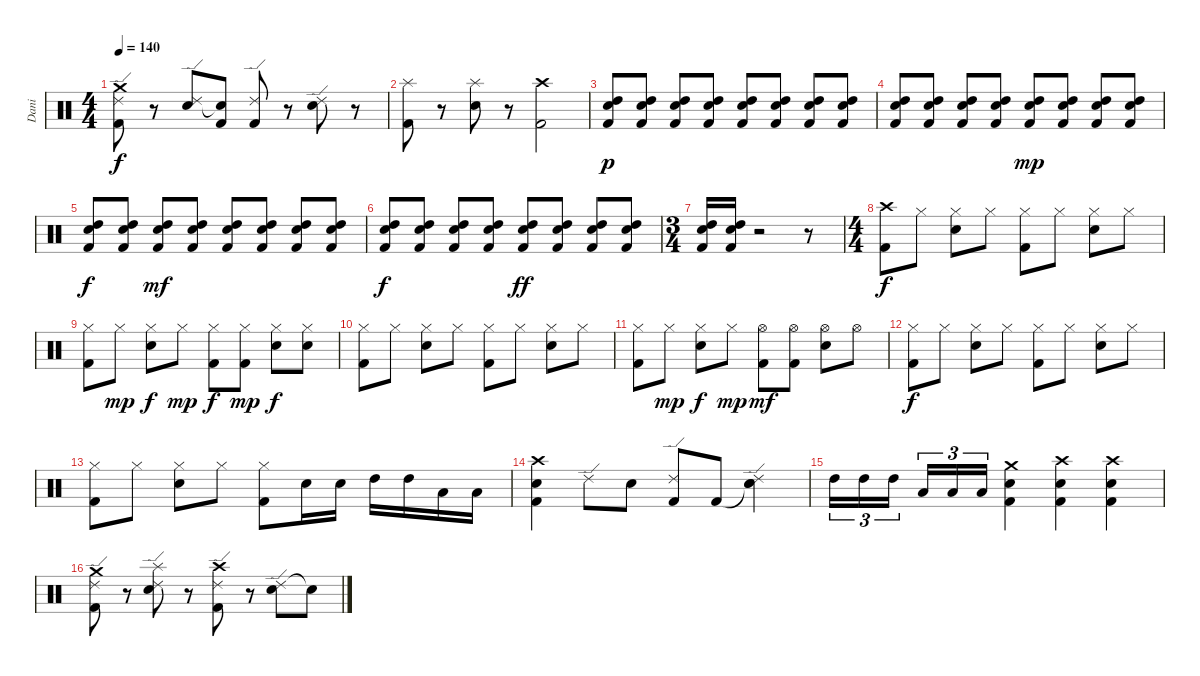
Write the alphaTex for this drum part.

\track ("Dani" "Dani") {instrument percussion}
\staff {score}
\articulation defaults
\ts (4 4)
\tempo 140
\clef neutral
\ks c
("Crash medium (hit)" "Ride (edge) 2" "Kick (hit) 2").8{dy f} r.8 ("Ride (edge) 2" "Snare (hit) 2").8 ("Snare (hit)"{t} "Kick (hit) 2").8 ("Ride (edge) 2" "Kick (hit) 2").8 r.8 ("Ride (edge) 2" "Snare (hit) 2").8 r.8 |
("Splash (hit)" "Kick (hit) 2").8 r.8 ("Splash (hit)" "Snare (hit) 2").8 r.8 ("Crash high (hit)" "Kick (hit) 2").2 |
("Snare (hit) 2" "High Tom (hit)" "Kick (hit) 2").8{dy p} ("Snare (hit) 2" "High Tom (hit)" "Kick (hit) 2").8 ("Snare (hit) 2" "High Tom (hit)" "Kick (hit) 2").8 ("Snare (hit) 2" "High Tom (hit)" "Kick (hit) 2").8 ("Snare (hit) 2" "High Tom (hit)" "Kick (hit) 2").8 ("Snare (hit) 2" "High Tom (hit)" "Kick (hit) 2").8 ("Snare (hit) 2" "High Tom (hit)" "Kick (hit) 2").8 ("Snare (hit) 2" "High Tom (hit)" "Kick (hit) 2").8 |
("Snare (hit) 2" "High Tom (hit)" "Kick (hit) 2").8 ("Snare (hit) 2" "High Tom (hit)" "Kick (hit) 2").8 ("Snare (hit) 2" "High Tom (hit)" "Kick (hit) 2").8 ("Snare (hit) 2" "High Tom (hit)" "Kick (hit) 2").8 ("Snare (hit) 2" "High Tom (hit)" "Kick (hit) 2").8{dy mp} ("Snare (hit) 2" "High Tom (hit)" "Kick (hit) 2").8 ("Snare (hit) 2" "High Tom (hit)" "Kick (hit) 2").8 ("Snare (hit) 2" "High Tom (hit)" "Kick (hit) 2").8 |
("Snare (hit) 2" "High Tom (hit)" "Kick (hit) 2").8{dy f} ("Snare (hit) 2" "High Tom (hit)" "Kick (hit) 2").8 ("Snare (hit) 2" "High Tom (hit)" "Kick (hit) 2").8{dy mf} ("Snare (hit) 2" "High Tom (hit)" "Kick (hit) 2").8 ("Snare (hit) 2" "High Tom (hit)" "Kick (hit) 2").8 ("Snare (hit) 2" "High Tom (hit)" "Kick (hit) 2").8 ("Snare (hit) 2" "High Tom (hit)" "Kick (hit) 2").8 ("Snare (hit) 2" "High Tom (hit)" "Kick (hit) 2").8 |
("Snare (hit) 2" "High Tom (hit)" "Kick (hit) 2").8{dy f} ("Snare (hit) 2" "High Tom (hit)" "Kick (hit) 2").8 ("Snare (hit) 2" "High Tom (hit)" "Kick (hit) 2").8 ("Snare (hit) 2" "High Tom (hit)" "Kick (hit) 2").8 ("Snare (hit) 2" "High Tom (hit)" "Kick (hit) 2").8{dy ff} ("Snare (hit) 2" "High Tom (hit)" "Kick (hit) 2").8 ("Snare (hit) 2" "High Tom (hit)" "Kick (hit) 2").8 ("Snare (hit) 2" "High Tom (hit)" "Kick (hit) 2").8 |
\ts (3 4)
("Snare (hit) 2" "High Tom (hit)" "Kick (hit) 2").16 ("Snare (hit) 2" "High Tom (hit)" "Kick (hit) 2").16 r.2 r.8 |
\ts (4 4)
("Crash high (hit)" "Kick (hit) 2").8{dy f} "Hi-Hat (closed)".8 ("Hi-Hat (closed)" "Snare (hit) 2").8 "Hi-Hat (closed)".8 ("Hi-Hat (closed)" "Kick (hit) 2").8 "Hi-Hat (closed)".8 ("Hi-Hat (closed)" "Snare (hit) 2").8 "Hi-Hat (closed)".8 |
("Hi-Hat (closed)" "Kick (hit) 2").8 "Hi-Hat (closed)".8{dy mp} ("Hi-Hat (closed)" "Snare (hit) 2").8{dy f} "Hi-Hat (closed)".8{dy mp} ("Hi-Hat (closed)" "Kick (hit) 2").8{dy f} ("Hi-Hat (closed)" "Kick (hit) 2").8{dy mp} ("Hi-Hat (closed)" "Snare (hit) 2").8{dy f} ("Hi-Hat (closed)" "Snare (hit) 2").8 |
("Hi-Hat (closed)" "Kick (hit) 2").8 "Hi-Hat (closed)".8 ("Hi-Hat (closed)" "Snare (hit) 2").8 "Hi-Hat (closed)".8 ("Hi-Hat (closed)" "Kick (hit) 2").8 "Hi-Hat (closed)".8 ("Hi-Hat (closed)" "Snare (hit) 2").8 "Hi-Hat (closed)".8 |
("Hi-Hat (closed)" "Kick (hit) 2").8 "Hi-Hat (closed)".8{dy mp} ("Hi-Hat (closed)" "Snare (hit) 2").8{dy f} "Hi-Hat (closed)".8{dy mp} ("Hi-Hat (open)" "Kick (hit) 2").8{dy mf} ("Hi-Hat (open)" "Kick (hit) 2").8 ("Hi-Hat (open)" "Snare (hit) 2").8 "Hi-Hat (open)".8 |
("Hi-Hat (closed)" "Kick (hit) 2").8{dy f} "Hi-Hat (closed)".8 ("Hi-Hat (closed)" "Snare (hit) 2").8 "Hi-Hat (closed)".8 ("Hi-Hat (closed)" "Kick (hit) 2").8 "Hi-Hat (closed)".8 ("Hi-Hat (closed)" "Snare (hit) 2").8 "Hi-Hat (closed)".8 |
("Hi-Hat (closed)" "Kick (hit) 2").8 "Hi-Hat (closed)".8 ("Hi-Hat (closed)" "Snare (hit) 2").8 "Hi-Hat (closed)".8 ("Hi-Hat (closed)" "Kick (hit) 2").8 "Snare (hit) 2".16 "Snare (hit) 2".16 "High Tom (hit)".16 "High Tom (hit)".16 "Low Tom (hit)".16 "Low Tom (hit)".16 |
("Crash high (hit)" "Snare (hit) 2" "Kick (hit) 2").4 "Ride (edge) 2".8 "Snare (hit) 2".8 ("Ride (edge) 2" "Kick (hit) 2").8 "Kick (hit) 2".8 ("Snare (hit)"{t} "Ride (edge) 2" "Snare (hit) 2").4 |
"High Tom (hit)".16{tu (3 2)} "High Tom (hit)".16{tu (3 2)} "High Tom (hit)".16{tu (3 2)} "Low Tom (hit)".16{tu (3 2)} "Low Tom (hit)".16{tu (3 2)} "Low Tom (hit)".16{tu (3 2)} ("Crash medium (hit)" "Snare (hit) 2" "Kick (hit) 2").4 ("Crash high (hit)" "Snare (hit) 2" "Kick (hit) 2").4 ("Crash high (hit)" "Snare (hit) 2" "Kick (hit) 2").4 |
("Crash medium (hit)" "Ride (edge) 2" "Kick (hit) 2").8 r.8 ("Splash (hit)" "Ride (edge) 2" "Snare (hit) 2").8 r.8 ("Crash high (hit)" "Ride (edge) 2" "Kick (hit) 2").8 r.8 ("Ride (edge) 2" "Snare (hit) 2").8 "Snare (hit)"{t}.8
